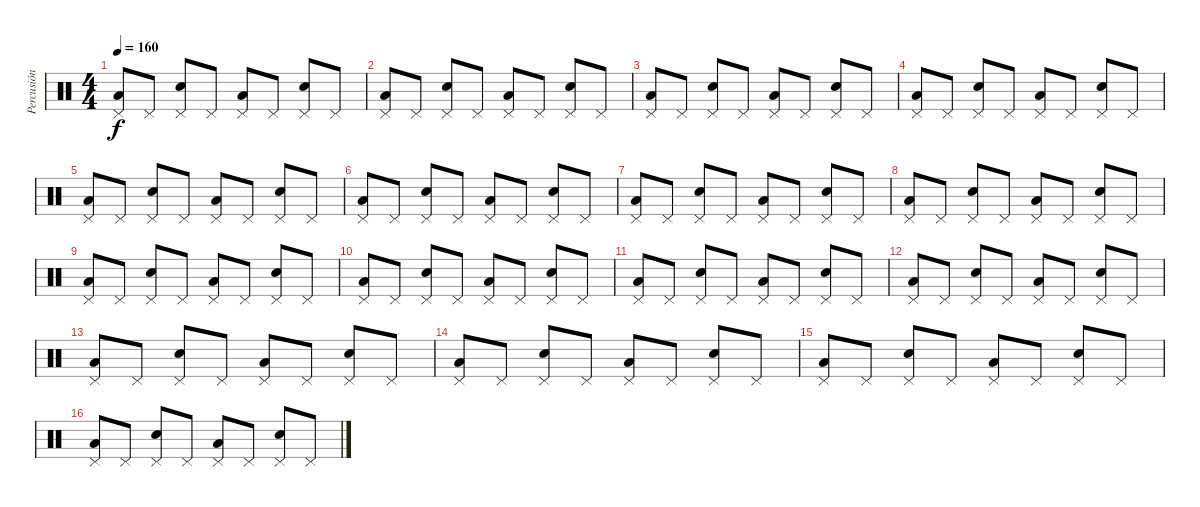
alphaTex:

\track ("Percusión" "Percusión") {instrument percussion}
\staff {score}
\articulation defaults
\ts (4 4)
\tempo 160
\clef neutral
\ks c
("Pedal Hi-Hat (hit)" "Low Floor Tom (hit)").8{dy f} "Pedal Hi-Hat (hit)".8 ("Pedal Hi-Hat (hit)" "Snare (hit) 2").8 "Pedal Hi-Hat (hit)".8 ("Pedal Hi-Hat (hit)" "Low Floor Tom (hit)").8 "Pedal Hi-Hat (hit)".8 ("Pedal Hi-Hat (hit)" "Snare (hit) 2").8 "Pedal Hi-Hat (hit)".8 |
("Pedal Hi-Hat (hit)" "Low Floor Tom (hit)").8 "Pedal Hi-Hat (hit)".8 ("Pedal Hi-Hat (hit)" "Snare (hit) 2").8 "Pedal Hi-Hat (hit)".8 ("Pedal Hi-Hat (hit)" "Low Floor Tom (hit)").8 "Pedal Hi-Hat (hit)".8 ("Pedal Hi-Hat (hit)" "Snare (hit) 2").8 "Pedal Hi-Hat (hit)".8 |
("Pedal Hi-Hat (hit)" "Low Floor Tom (hit)").8 "Pedal Hi-Hat (hit)".8 ("Pedal Hi-Hat (hit)" "Snare (hit) 2").8 "Pedal Hi-Hat (hit)".8 ("Pedal Hi-Hat (hit)" "Low Floor Tom (hit)").8 "Pedal Hi-Hat (hit)".8 ("Pedal Hi-Hat (hit)" "Snare (hit) 2").8 "Pedal Hi-Hat (hit)".8 |
("Pedal Hi-Hat (hit)" "Low Floor Tom (hit)").8 "Pedal Hi-Hat (hit)".8 ("Pedal Hi-Hat (hit)" "Snare (hit) 2").8 "Pedal Hi-Hat (hit)".8 ("Pedal Hi-Hat (hit)" "Low Floor Tom (hit)").8 "Pedal Hi-Hat (hit)".8 ("Pedal Hi-Hat (hit)" "Snare (hit) 2").8 "Pedal Hi-Hat (hit)".8 |
("Pedal Hi-Hat (hit)" "Low Floor Tom (hit)").8 "Pedal Hi-Hat (hit)".8 ("Pedal Hi-Hat (hit)" "Snare (hit) 2").8 "Pedal Hi-Hat (hit)".8 ("Pedal Hi-Hat (hit)" "Low Floor Tom (hit)").8 "Pedal Hi-Hat (hit)".8 ("Pedal Hi-Hat (hit)" "Snare (hit) 2").8 "Pedal Hi-Hat (hit)".8 |
("Pedal Hi-Hat (hit)" "Low Floor Tom (hit)").8 "Pedal Hi-Hat (hit)".8 ("Pedal Hi-Hat (hit)" "Snare (hit) 2").8 "Pedal Hi-Hat (hit)".8 ("Pedal Hi-Hat (hit)" "Low Floor Tom (hit)").8 "Pedal Hi-Hat (hit)".8 ("Pedal Hi-Hat (hit)" "Snare (hit) 2").8 "Pedal Hi-Hat (hit)".8 |
("Pedal Hi-Hat (hit)" "Low Floor Tom (hit)").8 "Pedal Hi-Hat (hit)".8 ("Pedal Hi-Hat (hit)" "Snare (hit) 2").8 "Pedal Hi-Hat (hit)".8 ("Pedal Hi-Hat (hit)" "Low Floor Tom (hit)").8 "Pedal Hi-Hat (hit)".8 ("Pedal Hi-Hat (hit)" "Snare (hit) 2").8 "Pedal Hi-Hat (hit)".8 |
("Pedal Hi-Hat (hit)" "Low Floor Tom (hit)").8 "Pedal Hi-Hat (hit)".8 ("Pedal Hi-Hat (hit)" "Snare (hit) 2").8 "Pedal Hi-Hat (hit)".8 ("Pedal Hi-Hat (hit)" "Low Floor Tom (hit)").8 "Pedal Hi-Hat (hit)".8 ("Pedal Hi-Hat (hit)" "Snare (hit) 2").8 "Pedal Hi-Hat (hit)".8 |
("Pedal Hi-Hat (hit)" "Low Floor Tom (hit)").8 "Pedal Hi-Hat (hit)".8 ("Pedal Hi-Hat (hit)" "Snare (hit) 2").8 "Pedal Hi-Hat (hit)".8 ("Pedal Hi-Hat (hit)" "Low Floor Tom (hit)").8 "Pedal Hi-Hat (hit)".8 ("Pedal Hi-Hat (hit)" "Snare (hit) 2").8 "Pedal Hi-Hat (hit)".8 |
("Pedal Hi-Hat (hit)" "Low Floor Tom (hit)").8 "Pedal Hi-Hat (hit)".8 ("Pedal Hi-Hat (hit)" "Snare (hit) 2").8 "Pedal Hi-Hat (hit)".8 ("Pedal Hi-Hat (hit)" "Low Floor Tom (hit)").8 "Pedal Hi-Hat (hit)".8 ("Pedal Hi-Hat (hit)" "Snare (hit) 2").8 "Pedal Hi-Hat (hit)".8 |
("Pedal Hi-Hat (hit)" "Low Floor Tom (hit)").8 "Pedal Hi-Hat (hit)".8 ("Pedal Hi-Hat (hit)" "Snare (hit) 2").8 "Pedal Hi-Hat (hit)".8 ("Pedal Hi-Hat (hit)" "Low Floor Tom (hit)").8 "Pedal Hi-Hat (hit)".8 ("Pedal Hi-Hat (hit)" "Snare (hit) 2").8 "Pedal Hi-Hat (hit)".8 |
("Pedal Hi-Hat (hit)" "Low Floor Tom (hit)").8 "Pedal Hi-Hat (hit)".8 ("Pedal Hi-Hat (hit)" "Snare (hit) 2").8 "Pedal Hi-Hat (hit)".8 ("Pedal Hi-Hat (hit)" "Low Floor Tom (hit)").8 "Pedal Hi-Hat (hit)".8 ("Pedal Hi-Hat (hit)" "Snare (hit) 2").8 "Pedal Hi-Hat (hit)".8 |
("Pedal Hi-Hat (hit)" "Low Floor Tom (hit)").8 "Pedal Hi-Hat (hit)".8 ("Pedal Hi-Hat (hit)" "Snare (hit) 2").8 "Pedal Hi-Hat (hit)".8 ("Pedal Hi-Hat (hit)" "Low Floor Tom (hit)").8 "Pedal Hi-Hat (hit)".8 ("Pedal Hi-Hat (hit)" "Snare (hit) 2").8 "Pedal Hi-Hat (hit)".8 |
("Pedal Hi-Hat (hit)" "Low Floor Tom (hit)").8 "Pedal Hi-Hat (hit)".8 ("Pedal Hi-Hat (hit)" "Snare (hit) 2").8 "Pedal Hi-Hat (hit)".8 ("Pedal Hi-Hat (hit)" "Low Floor Tom (hit)").8 "Pedal Hi-Hat (hit)".8 ("Pedal Hi-Hat (hit)" "Snare (hit) 2").8 "Pedal Hi-Hat (hit)".8 |
("Pedal Hi-Hat (hit)" "Low Floor Tom (hit)").8 "Pedal Hi-Hat (hit)".8 ("Pedal Hi-Hat (hit)" "Snare (hit) 2").8 "Pedal Hi-Hat (hit)".8 ("Pedal Hi-Hat (hit)" "Low Floor Tom (hit)").8 "Pedal Hi-Hat (hit)".8 ("Pedal Hi-Hat (hit)" "Snare (hit) 2").8 "Pedal Hi-Hat (hit)".8 |
("Pedal Hi-Hat (hit)" "Low Floor Tom (hit)").8 "Pedal Hi-Hat (hit)".8 ("Pedal Hi-Hat (hit)" "Snare (hit) 2").8 "Pedal Hi-Hat (hit)".8 ("Pedal Hi-Hat (hit)" "Low Floor Tom (hit)").8 "Pedal Hi-Hat (hit)".8 ("Pedal Hi-Hat (hit)" "Snare (hit) 2").8 "Pedal Hi-Hat (hit)".8
